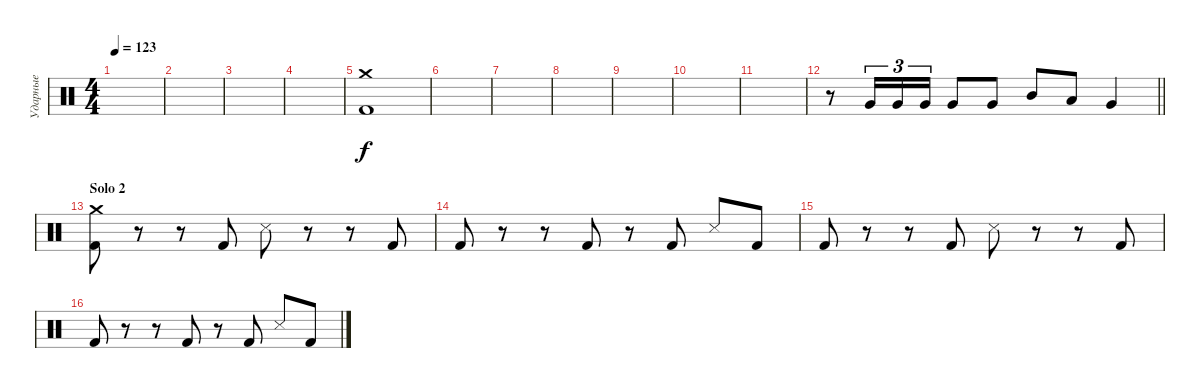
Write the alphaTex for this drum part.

\track ("Ударные" "Ударные") {instrument percussion}
\staff {score}
\articulation defaults
\ts (4 4)
\tempo 123
\clef neutral
\ks c
|
|
|
|
("Crash medium (hit)" "Kick (hit) 2").1 |
|
|
|
|
|
|
\barLineRight lightlight
r.8 "Very Low Tom (hit)".16{tu (3 2)} "Very Low Tom (hit)".16{tu (3 2)} "Very Low Tom (hit)".16{tu (3 2)} "Very Low Tom (hit)".8 "Very Low Tom (hit)".8 "Mid Tom (hit)".8 "Low Tom (hit)".8 "Very Low Tom (hit)".4 |
\section ("" "Solo 2")
("Crash medium (hit)" "Kick (hit) 2").8 r.8 r.8 "Kick (hit) 2".8 "Snare (side stick) 3".8 r.8 r.8 "Kick (hit) 2".8 |
"Kick (hit) 2".8 r.8 r.8 "Kick (hit) 2".8 r.8 "Kick (hit) 2".8 "Snare (side stick) 3".8 "Kick (hit) 2".8 |
"Kick (hit) 2".8 r.8 r.8 "Kick (hit) 2".8 "Snare (side stick) 3".8 r.8 r.8 "Kick (hit) 2".8 |
"Kick (hit) 2".8 r.8 r.8 "Kick (hit) 2".8 r.8 "Kick (hit) 2".8 "Snare (side stick) 3".8 "Kick (hit) 2".8
